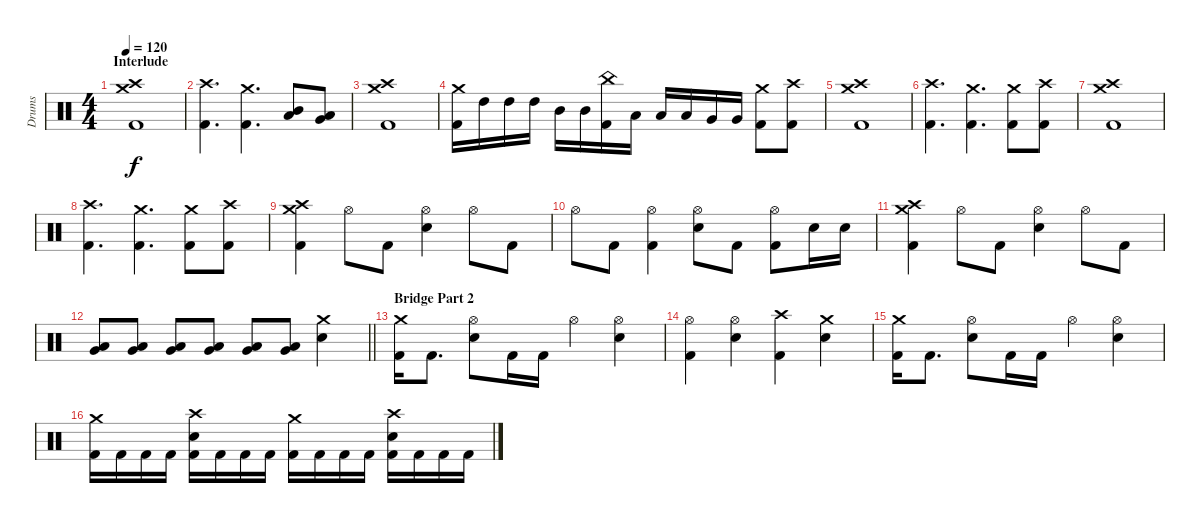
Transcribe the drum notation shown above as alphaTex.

\track ("Drums" "Drums") {instrument percussion}
\staff {score}
\articulation defaults
\ts (4 4)
\section ("" "Interlude")
\tempo 120
\clef neutral
\ks c
("Crash medium (hit)" "Crash high (hit)" "Kick (hit) 2").1{dy f} |
("Crash high (hit)" "Kick (hit) 2").4{d} ("Crash medium (hit)" "Kick (hit) 2").4{d} ("Mid Tom (hit)" "Low Tom (hit)").8{bd 240} ("Low Tom (hit)" "Very Low Tom (hit)").8{bd 240} |
("Crash medium (hit)" "Crash high (hit)" "Kick (hit) 2").1 |
("Crash medium (hit)" "Kick (hit) 2").16 "High Tom (hit)".16 "High Tom (hit)".16 "High Tom (hit)".16 "Mid Tom (hit)".16 "Mid Tom (hit)".16 ("China (hit)" "Kick (hit) 2").16 "Low Tom (hit)".16 "Low Tom (hit)".16 "Low Tom (hit)".16 "Very Low Tom (hit)".16 "Very Low Tom (hit)".16 ("Crash medium (hit)" "Kick (hit) 2").8 ("Crash high (hit)" "Kick (hit) 2").8 |
("Crash medium (hit)" "Crash high (hit)" "Kick (hit) 2").1 |
("Crash high (hit)" "Kick (hit) 2").4{d} ("Crash medium (hit)" "Kick (hit) 2").4{d} ("Crash medium (hit)" "Kick (hit) 2").8 ("Crash high (hit)" "Kick (hit) 2").8 |
("Crash medium (hit)" "Crash high (hit)" "Kick (hit) 2").1 |
("Crash high (hit)" "Kick (hit) 2").4{d} ("Crash medium (hit)" "Kick (hit) 2").4{d} ("Crash medium (hit)" "Kick (hit) 2").8 ("Crash high (hit)" "Kick (hit) 2").8 |
("Crash medium (hit)" "Crash high (hit)" "Kick (hit) 2").4 "Hi-Hat (open)".8 "Kick (hit) 2".8 ("Hi-Hat (open)" "Electric Snare (hit)").4 "Hi-Hat (open)".8 "Kick (hit) 2".8 |
"Hi-Hat (open)".8 "Kick (hit) 2".8 ("Hi-Hat (open)" "Kick (hit) 2").4 ("Hi-Hat (open)" "Electric Snare (hit)").8 "Kick (hit) 2".8 ("Hi-Hat (open)" "Kick (hit) 2").8 "Electric Snare (hit)".16 "Electric Snare (hit)".16 |
("Crash medium (hit)" "Crash high (hit)" "Kick (hit) 2").4 "Hi-Hat (open)".8 "Kick (hit) 2".8 ("Hi-Hat (open)" "Electric Snare (hit)").4 "Hi-Hat (open)".8 "Kick (hit) 2".8 |
\barLineRight lightlight
("Very Low Tom (hit)" "Low Floor Tom (hit)").8 ("Very Low Tom (hit)" "Low Floor Tom (hit)").8 ("Very Low Tom (hit)" "Low Floor Tom (hit)").8 ("Very Low Tom (hit)" "Low Floor Tom (hit)").8 ("Very Low Tom (hit)" "Low Floor Tom (hit)").8 ("Very Low Tom (hit)" "Low Floor Tom (hit)").8 ("Crash medium (hit)" "Electric Snare (hit)").4 |
\section ("" "Bridge Part 2")
("Crash medium (hit)" "Kick (hit) 2").16 "Kick (hit) 2".8{d} ("Hi-Hat (open)" "Electric Snare (hit)").8 "Kick (hit) 2".16 "Kick (hit) 2".16 "Hi-Hat (open)".4 ("Hi-Hat (open)" "Electric Snare (hit)").4 |
("Hi-Hat (open)" "Kick (hit) 2").4 ("Hi-Hat (open)" "Electric Snare (hit)").4 ("Crash high (hit)" "Kick (hit) 2").4 ("Crash medium (hit)" "Electric Snare (hit)").4 |
("Crash medium (hit)" "Kick (hit) 2").16 "Kick (hit) 2".8{d} ("Hi-Hat (open)" "Electric Snare (hit)").8 "Kick (hit) 2".16 "Kick (hit) 2".16 "Hi-Hat (open)".4 ("Hi-Hat (open)" "Electric Snare (hit)").4 |
("Crash medium (hit)" "Kick (hit) 2").16 "Kick (hit) 2".16 "Kick (hit) 2".16 "Kick (hit) 2".16 ("Crash high (hit)" "Electric Snare (hit)" "Kick (hit) 2").16 "Kick (hit) 2".16 "Kick (hit) 2".16 "Kick (hit) 2".16 ("Crash medium (hit)" "Kick (hit) 2").16 "Kick (hit) 2".16 "Kick (hit) 2".16 "Kick (hit) 2".16 ("Crash high (hit)" "Electric Snare (hit)" "Kick (hit) 2").16 "Kick (hit) 2".16 "Kick (hit) 2".16 "Kick (hit) 2".16
